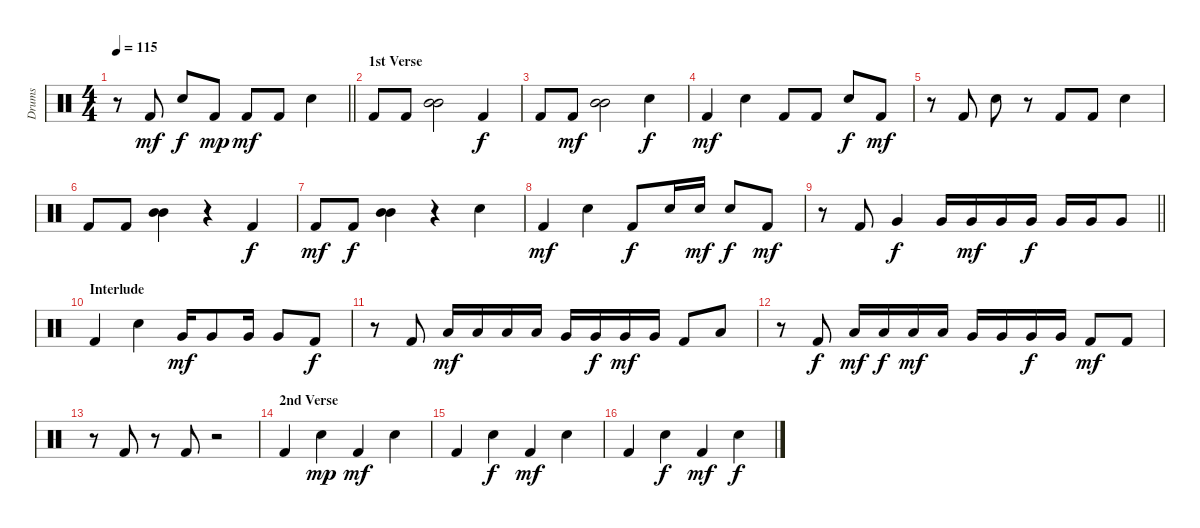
\track ("Drums" "Drums") {instrument percussion}
\staff {score}
\articulation defaults
\ts (4 4)
\tempo 115
\clef neutral
\barLineRight lightlight
\ks c
r.8{dy mf} "Kick (hit) 2".8 "Electric Snare (hit)".8{dy f} "Kick (hit) 2".8{dy mp} "Kick (hit) 2".8{dy mf} "Kick (hit) 2".8 "Electric Snare (hit)".4 |
\section ("" "1st Verse")
"Kick (hit) 2".8 "Kick (hit) 2".8 ("Mid Tom (hit)" "Mid Tom (hit)").2 "Kick (hit) 2".4{dy f} |
"Kick (hit) 2".8 "Kick (hit) 2".8{dy mf} ("Mid Tom (hit)" "Mid Tom (hit)").2 "Electric Snare (hit)".4{dy f} |
"Kick (hit) 2".4{dy mf} "Electric Snare (hit)".4 "Kick (hit) 2".8 "Kick (hit) 2".8 "Electric Snare (hit)".8{dy f} "Kick (hit) 2".8{dy mf} |
r.8 "Kick (hit) 2".8 "Electric Snare (hit)".8 r.8 "Kick (hit) 2".8 "Kick (hit) 2".8 "Electric Snare (hit)".4 |
"Kick (hit) 2".8 "Kick (hit) 2".8 ("Mid Tom (hit)" "Mid Tom (hit)").4 r.4 "Kick (hit) 2".4{dy f} |
"Kick (hit) 2".8{dy mf} "Kick (hit) 2".8{dy f} ("Mid Tom (hit)" "Mid Tom (hit)").4 r.4 "Electric Snare (hit)".4 |
"Kick (hit) 2".4{dy mf} "Electric Snare (hit)".4 "Kick (hit) 2".8{dy f} "Electric Snare (hit)".16 "Electric Snare (hit)".16{dy mf} "Electric Snare (hit)".8{dy f} "Kick (hit) 2".8{dy mf} |
\barLineRight lightlight
r.8 "Kick (hit) 2".8 "Very Low Tom (hit)".4{dy f} "Very Low Tom (hit)".16 "Very Low Tom (hit)".16{dy mf} "Very Low Tom (hit)".16 "Very Low Tom (hit)".16{dy f} "Very Low Tom (hit)".16 "Very Low Tom (hit)".16 "Very Low Tom (hit)".8 |
\section ("" "Interlude")
"Kick (hit) 2".4 "Electric Snare (hit)".4 "Very Low Tom (hit)".16{dy mf} "Very Low Tom (hit)".8 "Very Low Tom (hit)".16 "Very Low Tom (hit)".8 "Kick (hit) 2".8{dy f} |
r.8 "Kick (hit) 2".8 "Low Tom (hit)".16{dy mf} "Low Tom (hit)".16 "Low Tom (hit)".16 "Low Tom (hit)".16 "Very Low Tom (hit)".16 "Very Low Tom (hit)".16{dy f} "Very Low Tom (hit)".16{dy mf} "Very Low Tom (hit)".16 "Kick (hit) 2".8 "Low Tom (hit)".8 |
r.8 "Kick (hit) 2".8{dy f} "Low Tom (hit)".16{dy mf} "Low Tom (hit)".16{dy f} "Low Tom (hit)".16{dy mf} "Low Tom (hit)".16 "Very Low Tom (hit)".16 "Very Low Tom (hit)".16 "Very Low Tom (hit)".16{dy f} "Very Low Tom (hit)".16 "Kick (hit) 2".8{dy mf} "Kick (hit) 2".8 |
r.8 "Kick (hit) 2".8 r.8 "Kick (hit) 2".8 r.2 |
\section ("" "2nd Verse")
"Kick (hit) 2".4 "Electric Snare (hit)".4{dy mp} "Kick (hit) 2".4{dy mf} "Electric Snare (hit)".4 |
"Kick (hit) 2".4 "Electric Snare (hit)".4{dy f} "Kick (hit) 2".4{dy mf} "Electric Snare (hit)".4 |
"Kick (hit) 2".4 "Electric Snare (hit)".4{dy f} "Kick (hit) 2".4{dy mf} "Electric Snare (hit)".4{dy f}
